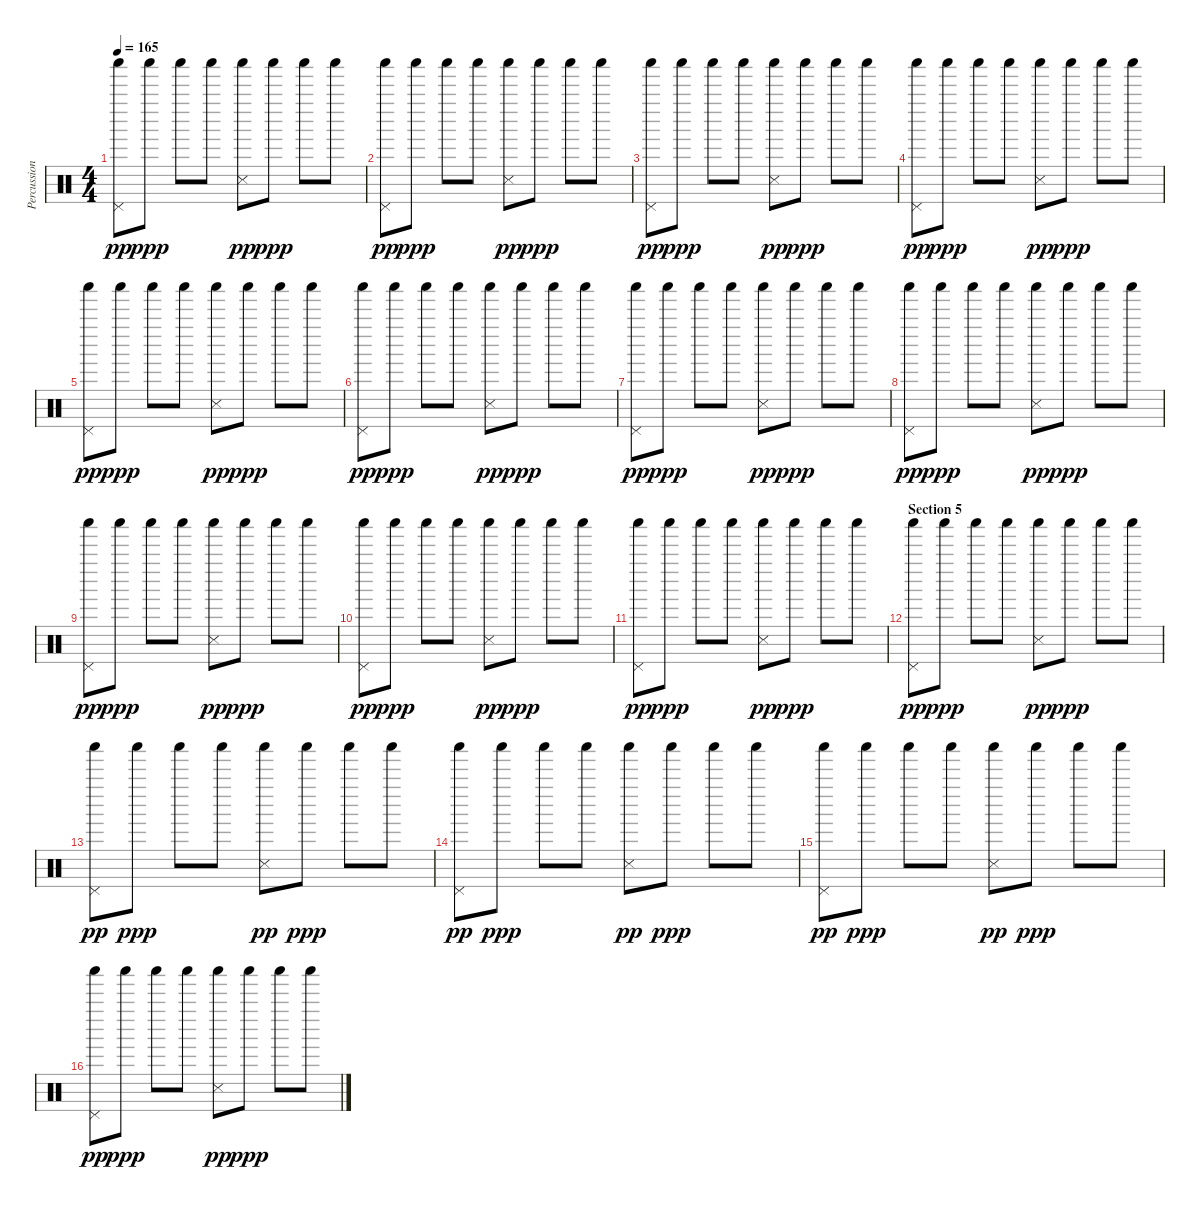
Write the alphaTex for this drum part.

\track ("Percussion" "Percussion") {instrument percussion}
\staff {score}
\articulation defaults
\ts (4 4)
\tempo 165
\clef neutral
\ks c
("Pedal Hi-Hat (hit)" "Shaker (hit)").8{dy pp} "Shaker (hit)".8{dy ppp} "Shaker (hit)".8 "Shaker (hit)".8 ("Snare (side stick) 3" "Shaker (hit)").8{dy pp} "Shaker (hit)".8{dy ppp} "Shaker (hit)".8 "Shaker (hit)".8 |
("Pedal Hi-Hat (hit)" "Shaker (hit)").8{dy pp} "Shaker (hit)".8{dy ppp} "Shaker (hit)".8 "Shaker (hit)".8 ("Snare (side stick) 3" "Shaker (hit)").8{dy pp} "Shaker (hit)".8{dy ppp} "Shaker (hit)".8 "Shaker (hit)".8 |
("Pedal Hi-Hat (hit)" "Shaker (hit)").8{dy pp} "Shaker (hit)".8{dy ppp} "Shaker (hit)".8 "Shaker (hit)".8 ("Snare (side stick) 3" "Shaker (hit)").8{dy pp} "Shaker (hit)".8{dy ppp} "Shaker (hit)".8 "Shaker (hit)".8 |
("Pedal Hi-Hat (hit)" "Shaker (hit)").8{dy pp} "Shaker (hit)".8{dy ppp} "Shaker (hit)".8 "Shaker (hit)".8 ("Snare (side stick) 3" "Shaker (hit)").8{dy pp} "Shaker (hit)".8{dy ppp} "Shaker (hit)".8 "Shaker (hit)".8 |
("Pedal Hi-Hat (hit)" "Shaker (hit)").8{dy pp} "Shaker (hit)".8{dy ppp} "Shaker (hit)".8 "Shaker (hit)".8 ("Snare (side stick) 3" "Shaker (hit)").8{dy pp} "Shaker (hit)".8{dy ppp} "Shaker (hit)".8 "Shaker (hit)".8 |
("Pedal Hi-Hat (hit)" "Shaker (hit)").8{dy pp} "Shaker (hit)".8{dy ppp} "Shaker (hit)".8 "Shaker (hit)".8 ("Snare (side stick) 3" "Shaker (hit)").8{dy pp} "Shaker (hit)".8{dy ppp} "Shaker (hit)".8 "Shaker (hit)".8 |
("Pedal Hi-Hat (hit)" "Shaker (hit)").8{dy pp} "Shaker (hit)".8{dy ppp} "Shaker (hit)".8 "Shaker (hit)".8 ("Snare (side stick) 3" "Shaker (hit)").8{dy pp} "Shaker (hit)".8{dy ppp} "Shaker (hit)".8 "Shaker (hit)".8 |
("Pedal Hi-Hat (hit)" "Shaker (hit)").8{dy pp} "Shaker (hit)".8{dy ppp} "Shaker (hit)".8 "Shaker (hit)".8 ("Snare (side stick) 3" "Shaker (hit)").8{dy pp} "Shaker (hit)".8{dy ppp} "Shaker (hit)".8 "Shaker (hit)".8 |
("Pedal Hi-Hat (hit)" "Shaker (hit)").8{dy pp} "Shaker (hit)".8{dy ppp} "Shaker (hit)".8 "Shaker (hit)".8 ("Snare (side stick) 3" "Shaker (hit)").8{dy pp} "Shaker (hit)".8{dy ppp} "Shaker (hit)".8 "Shaker (hit)".8 |
("Pedal Hi-Hat (hit)" "Shaker (hit)").8{dy pp} "Shaker (hit)".8{dy ppp} "Shaker (hit)".8 "Shaker (hit)".8 ("Snare (side stick) 3" "Shaker (hit)").8{dy pp} "Shaker (hit)".8{dy ppp} "Shaker (hit)".8 "Shaker (hit)".8 |
("Pedal Hi-Hat (hit)" "Shaker (hit)").8{dy pp} "Shaker (hit)".8{dy ppp} "Shaker (hit)".8 "Shaker (hit)".8 ("Snare (side stick) 3" "Shaker (hit)").8{dy pp} "Shaker (hit)".8{dy ppp} "Shaker (hit)".8 "Shaker (hit)".8 |
\section ("" "Section 5")
("Pedal Hi-Hat (hit)" "Shaker (hit)").8{dy pp} "Shaker (hit)".8{dy ppp} "Shaker (hit)".8 "Shaker (hit)".8 ("Snare (side stick) 3" "Shaker (hit)").8{dy pp} "Shaker (hit)".8{dy ppp} "Shaker (hit)".8 "Shaker (hit)".8 |
("Pedal Hi-Hat (hit)" "Shaker (hit)").8{dy pp} "Shaker (hit)".8{dy ppp} "Shaker (hit)".8 "Shaker (hit)".8 ("Snare (side stick) 3" "Shaker (hit)").8{dy pp} "Shaker (hit)".8{dy ppp} "Shaker (hit)".8 "Shaker (hit)".8 |
("Pedal Hi-Hat (hit)" "Shaker (hit)").8{dy pp} "Shaker (hit)".8{dy ppp} "Shaker (hit)".8 "Shaker (hit)".8 ("Snare (side stick) 3" "Shaker (hit)").8{dy pp} "Shaker (hit)".8{dy ppp} "Shaker (hit)".8 "Shaker (hit)".8 |
("Pedal Hi-Hat (hit)" "Shaker (hit)").8{dy pp} "Shaker (hit)".8{dy ppp} "Shaker (hit)".8 "Shaker (hit)".8 ("Snare (side stick) 3" "Shaker (hit)").8{dy pp} "Shaker (hit)".8{dy ppp} "Shaker (hit)".8 "Shaker (hit)".8 |
("Pedal Hi-Hat (hit)" "Shaker (hit)").8{dy pp} "Shaker (hit)".8{dy ppp} "Shaker (hit)".8 "Shaker (hit)".8 ("Snare (side stick) 3" "Shaker (hit)").8{dy pp} "Shaker (hit)".8{dy ppp} "Shaker (hit)".8 "Shaker (hit)".8
